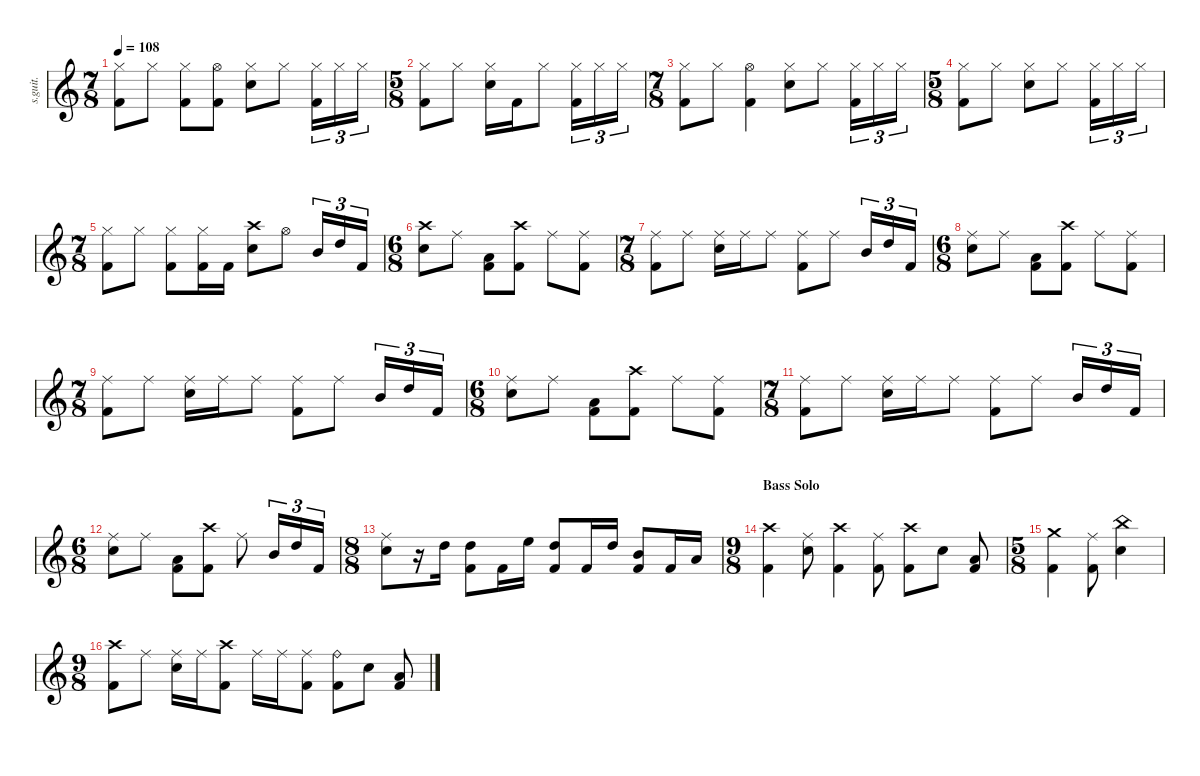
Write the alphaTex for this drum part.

\defaultSystemsLayout 4
\hideDynamics
\bracketExtendMode nobrackets
\track ("Danny Carey" "s.guit.") {instrument percussion}
\staff {score}
\articulation defaults
\ts (7 8)
\beaming (8 2 2 2 2)
\tempo 108
\clef g2
\ks c
("Hi-Hat (closed)" "Kick (hit) 2").8{lyrics (0 "") lyrics (1 "") lyrics (2 "") lyrics (3 "") lyrics (4 "") dy f} "Hi-Hat (closed)".8{lyrics (0 "") lyrics (1 "") lyrics (2 "") lyrics (3 "") lyrics (4 "")} ("Hi-Hat (closed)" "Kick (hit) 2").8{lyrics (0 "") lyrics (1 "") lyrics (2 "") lyrics (3 "") lyrics (4 "")} ("Hi-Hat (open)" "Kick (hit) 2").8{lyrics (0 "") lyrics (1 "") lyrics (2 "") lyrics (3 "") lyrics (4 "")} ("Hi-Hat (closed)" "Snare (hit) 2").8{lyrics (0 "") lyrics (1 "") lyrics (2 "") lyrics (3 "") lyrics (4 "")} "Hi-Hat (closed)".8{lyrics (0 "") lyrics (1 "") lyrics (2 "") lyrics (3 "") lyrics (4 "")} ("Hi-Hat (closed)" "Kick (hit) 2").16{tu (3 2) lyrics (0 "") lyrics (1 "") lyrics (2 "") lyrics (3 "") lyrics (4 "")} "Hi-Hat (closed)".16{tu (3 2) lyrics (0 "") lyrics (1 "") lyrics (2 "") lyrics (3 "") lyrics (4 "")} "Hi-Hat (closed)".16{tu (3 2) lyrics (0 "") lyrics (1 "") lyrics (2 "") lyrics (3 "") lyrics (4 "")} |
\ts (5 8)
\beaming (8 2 2 2 2)
("Hi-Hat (closed)" "Kick (hit) 2").8{lyrics (0 "") lyrics (1 "") lyrics (2 "") lyrics (3 "") lyrics (4 "")} "Hi-Hat (closed)".8{lyrics (0 "") lyrics (1 "") lyrics (2 "") lyrics (3 "") lyrics (4 "")} ("Hi-Hat (closed)" "Snare (hit) 2").16{lyrics (0 "") lyrics (1 "") lyrics (2 "") lyrics (3 "") lyrics (4 "")} "Kick (hit) 2".16{lyrics (0 "") lyrics (1 "") lyrics (2 "") lyrics (3 "") lyrics (4 "")} "Hi-Hat (closed)".8{lyrics (0 "") lyrics (1 "") lyrics (2 "") lyrics (3 "") lyrics (4 "")} ("Hi-Hat (closed)" "Kick (hit) 2").16{tu (3 2) lyrics (0 "") lyrics (1 "") lyrics (2 "") lyrics (3 "") lyrics (4 "")} "Hi-Hat (closed)".16{tu (3 2) lyrics (0 "") lyrics (1 "") lyrics (2 "") lyrics (3 "") lyrics (4 "")} "Hi-Hat (closed)".16{tu (3 2) lyrics (0 "") lyrics (1 "") lyrics (2 "") lyrics (3 "") lyrics (4 "")} |
\ts (7 8)
\beaming (8 2 2 2 2)
("Hi-Hat (closed)" "Kick (hit) 2").8{lyrics (0 "") lyrics (1 "") lyrics (2 "") lyrics (3 "") lyrics (4 "")} "Hi-Hat (closed)".8{lyrics (0 "") lyrics (1 "") lyrics (2 "") lyrics (3 "") lyrics (4 "")} ("Hi-Hat (open)" "Kick (hit) 2").4{lyrics (0 "") lyrics (1 "") lyrics (2 "") lyrics (3 "") lyrics (4 "")} ("Hi-Hat (closed)" "Snare (hit) 2").8{lyrics (0 "") lyrics (1 "") lyrics (2 "") lyrics (3 "") lyrics (4 "")} "Hi-Hat (closed)".8{lyrics (0 "") lyrics (1 "") lyrics (2 "") lyrics (3 "") lyrics (4 "")} ("Hi-Hat (closed)" "Kick (hit) 2").16{tu (3 2) lyrics (0 "") lyrics (1 "") lyrics (2 "") lyrics (3 "") lyrics (4 "")} "Hi-Hat (closed)".16{tu (3 2) lyrics (0 "") lyrics (1 "") lyrics (2 "") lyrics (3 "") lyrics (4 "")} "Hi-Hat (closed)".16{tu (3 2) lyrics (0 "") lyrics (1 "") lyrics (2 "") lyrics (3 "") lyrics (4 "")} |
\ts (5 8)
\beaming (8 2 2 2 2)
("Hi-Hat (closed)" "Kick (hit) 2").8{lyrics (0 "") lyrics (1 "") lyrics (2 "") lyrics (3 "") lyrics (4 "")} "Hi-Hat (closed)".8{lyrics (0 "") lyrics (1 "") lyrics (2 "") lyrics (3 "") lyrics (4 "")} ("Hi-Hat (closed)" "Snare (hit) 2").8{lyrics (0 "") lyrics (1 "") lyrics (2 "") lyrics (3 "") lyrics (4 "")} "Hi-Hat (closed)".8{lyrics (0 "") lyrics (1 "") lyrics (2 "") lyrics (3 "") lyrics (4 "")} ("Hi-Hat (closed)" "Kick (hit) 2").16{tu (3 2) lyrics (0 "") lyrics (1 "") lyrics (2 "") lyrics (3 "") lyrics (4 "")} "Hi-Hat (closed)".16{tu (3 2) lyrics (0 "") lyrics (1 "") lyrics (2 "") lyrics (3 "") lyrics (4 "")} "Hi-Hat (closed)".16{tu (3 2) lyrics (0 "") lyrics (1 "") lyrics (2 "") lyrics (3 "") lyrics (4 "")} |
\ts (7 8)
\beaming (8 2 2 2 2)
("Hi-Hat (closed)" "Kick (hit) 2").8{lyrics (0 "") lyrics (1 "") lyrics (2 "") lyrics (3 "") lyrics (4 "")} "Hi-Hat (closed)".8{lyrics (0 "") lyrics (1 "") lyrics (2 "") lyrics (3 "") lyrics (4 "")} ("Hi-Hat (closed)" "Kick (hit) 2").8{lyrics (0 "") lyrics (1 "") lyrics (2 "") lyrics (3 "") lyrics (4 "")} ("Hi-Hat (closed)" "Kick (hit) 2").16{lyrics (0 "") lyrics (1 "") lyrics (2 "") lyrics (3 "") lyrics (4 "")} "Kick (hit) 2".16{lyrics (0 "") lyrics (1 "") lyrics (2 "") lyrics (3 "") lyrics (4 "")} ("Crash high (hit)" "Snare (hit) 2").8{lyrics (0 "") lyrics (1 "") lyrics (2 "") lyrics (3 "") lyrics (4 "")} "Hi-Hat (open)".8{lyrics (0 "") lyrics (1 "") lyrics (2 "") lyrics (3 "") lyrics (4 "")} "Mid Tom (hit)".16{tu (3 2) lyrics (0 "") lyrics (1 "") lyrics (2 "") lyrics (3 "") lyrics (4 "")} "High Tom (hit)".16{tu (3 2) lyrics (0 "") lyrics (1 "") lyrics (2 "") lyrics (3 "") lyrics (4 "")} "Kick (hit) 2".16{tu (3 2) lyrics (0 "") lyrics (1 "") lyrics (2 "") lyrics (3 "") lyrics (4 "")} |
\ts (6 8)
\beaming (8 2 2 2 2)
("Crash high (hit)" "Snare (hit) 2").8{lyrics (0 "") lyrics (1 "") lyrics (2 "") lyrics (3 "") lyrics (4 "")} "Ride (middle)".8{lyrics (0 "") lyrics (1 "") lyrics (2 "") lyrics (3 "") lyrics (4 "")} ("Kick (hit) 2" "Low Floor Tom (hit)").8{lyrics (0 "") lyrics (1 "") lyrics (2 "") lyrics (3 "") lyrics (4 "")} ("Crash high (hit)" "Kick (hit) 2").8{lyrics (0 "") lyrics (1 "") lyrics (2 "") lyrics (3 "") lyrics (4 "")} "Ride (middle)".8{lyrics (0 "") lyrics (1 "") lyrics (2 "") lyrics (3 "") lyrics (4 "")} ("Ride (middle)" "Kick (hit) 2").8{lyrics (0 "") lyrics (1 "") lyrics (2 "") lyrics (3 "") lyrics (4 "")} |
\ts (7 8)
\beaming (8 2 2 2 2)
("Ride (middle)" "Kick (hit) 2").8{lyrics (0 "") lyrics (1 "") lyrics (2 "") lyrics (3 "") lyrics (4 "")} "Ride (middle)".8{lyrics (0 "") lyrics (1 "") lyrics (2 "") lyrics (3 "") lyrics (4 "")} ("Ride (middle)" "Snare (hit) 2").16{lyrics (0 "") lyrics (1 "") lyrics (2 "") lyrics (3 "") lyrics (4 "")} "Ride (middle)".16{lyrics (0 "") lyrics (1 "") lyrics (2 "") lyrics (3 "") lyrics (4 "")} "Ride (middle)".8{lyrics (0 "") lyrics (1 "") lyrics (2 "") lyrics (3 "") lyrics (4 "")} ("Ride (middle)" "Kick (hit) 2").8{lyrics (0 "") lyrics (1 "") lyrics (2 "") lyrics (3 "") lyrics (4 "")} "Ride (middle)".8{lyrics (0 "") lyrics (1 "") lyrics (2 "") lyrics (3 "") lyrics (4 "")} "Mid Tom (hit)".16{tu (3 2) lyrics (0 "") lyrics (1 "") lyrics (2 "") lyrics (3 "") lyrics (4 "")} "High Tom (hit)".16{tu (3 2) lyrics (0 "") lyrics (1 "") lyrics (2 "") lyrics (3 "") lyrics (4 "")} "Kick (hit) 2".16{tu (3 2) lyrics (0 "") lyrics (1 "") lyrics (2 "") lyrics (3 "") lyrics (4 "")} |
\ts (6 8)
\beaming (8 2 2 2 2)
("Ride (middle)" "Snare (hit) 2").8{lyrics (0 "") lyrics (1 "") lyrics (2 "") lyrics (3 "") lyrics (4 "")} "Ride (middle)".8{lyrics (0 "") lyrics (1 "") lyrics (2 "") lyrics (3 "") lyrics (4 "")} ("Kick (hit) 2" "Low Floor Tom (hit)").8{lyrics (0 "") lyrics (1 "") lyrics (2 "") lyrics (3 "") lyrics (4 "")} ("Crash high (hit)" "Kick (hit) 2").8{lyrics (0 "") lyrics (1 "") lyrics (2 "") lyrics (3 "") lyrics (4 "")} "Ride (middle)".8{lyrics (0 "") lyrics (1 "") lyrics (2 "") lyrics (3 "") lyrics (4 "")} ("Ride (middle)" "Kick (hit) 2").8{lyrics (0 "") lyrics (1 "") lyrics (2 "") lyrics (3 "") lyrics (4 "")} |
\ts (7 8)
\beaming (8 2 2 2 2)
("Ride (middle)" "Kick (hit) 2").8{lyrics (0 "") lyrics (1 "") lyrics (2 "") lyrics (3 "") lyrics (4 "")} "Ride (middle)".8{lyrics (0 "") lyrics (1 "") lyrics (2 "") lyrics (3 "") lyrics (4 "")} ("Ride (middle)" "Snare (hit) 2").16{lyrics (0 "") lyrics (1 "") lyrics (2 "") lyrics (3 "") lyrics (4 "")} "Ride (middle)".16{lyrics (0 "") lyrics (1 "") lyrics (2 "") lyrics (3 "") lyrics (4 "")} "Ride (middle)".8{lyrics (0 "") lyrics (1 "") lyrics (2 "") lyrics (3 "") lyrics (4 "")} ("Ride (middle)" "Kick (hit) 2").8{lyrics (0 "") lyrics (1 "") lyrics (2 "") lyrics (3 "") lyrics (4 "")} "Ride (middle)".8{lyrics (0 "") lyrics (1 "") lyrics (2 "") lyrics (3 "") lyrics (4 "")} "Mid Tom (hit)".16{tu (3 2) lyrics (0 "") lyrics (1 "") lyrics (2 "") lyrics (3 "") lyrics (4 "")} "High Tom (hit)".16{tu (3 2) lyrics (0 "") lyrics (1 "") lyrics (2 "") lyrics (3 "") lyrics (4 "")} "Kick (hit) 2".16{tu (3 2) lyrics (0 "") lyrics (1 "") lyrics (2 "") lyrics (3 "") lyrics (4 "")} |
\ts (6 8)
\beaming (8 2 2 2 2)
("Ride (middle)" "Snare (hit) 2").8{lyrics (0 "") lyrics (1 "") lyrics (2 "") lyrics (3 "") lyrics (4 "")} "Ride (middle)".8{lyrics (0 "") lyrics (1 "") lyrics (2 "") lyrics (3 "") lyrics (4 "")} ("Kick (hit) 2" "Low Floor Tom (hit)").8{lyrics (0 "") lyrics (1 "") lyrics (2 "") lyrics (3 "") lyrics (4 "")} ("Crash high (hit)" "Kick (hit) 2").8{lyrics (0 "") lyrics (1 "") lyrics (2 "") lyrics (3 "") lyrics (4 "")} "Ride (middle)".8{lyrics (0 "") lyrics (1 "") lyrics (2 "") lyrics (3 "") lyrics (4 "")} ("Ride (middle)" "Kick (hit) 2").8{lyrics (0 "") lyrics (1 "") lyrics (2 "") lyrics (3 "") lyrics (4 "")} |
\ts (7 8)
\beaming (8 2 2 2 2)
("Ride (middle)" "Kick (hit) 2").8{lyrics (0 "") lyrics (1 "") lyrics (2 "") lyrics (3 "") lyrics (4 "")} "Ride (middle)".8{lyrics (0 "") lyrics (1 "") lyrics (2 "") lyrics (3 "") lyrics (4 "")} ("Ride (middle)" "Snare (hit) 2").16{lyrics (0 "") lyrics (1 "") lyrics (2 "") lyrics (3 "") lyrics (4 "")} "Ride (middle)".16{lyrics (0 "") lyrics (1 "") lyrics (2 "") lyrics (3 "") lyrics (4 "")} "Ride (middle)".8{lyrics (0 "") lyrics (1 "") lyrics (2 "") lyrics (3 "") lyrics (4 "")} ("Ride (middle)" "Kick (hit) 2").8{lyrics (0 "") lyrics (1 "") lyrics (2 "") lyrics (3 "") lyrics (4 "")} "Ride (middle)".8{lyrics (0 "") lyrics (1 "") lyrics (2 "") lyrics (3 "") lyrics (4 "")} "Mid Tom (hit)".16{tu (3 2) lyrics (0 "") lyrics (1 "") lyrics (2 "") lyrics (3 "") lyrics (4 "")} "High Tom (hit)".16{tu (3 2) lyrics (0 "") lyrics (1 "") lyrics (2 "") lyrics (3 "") lyrics (4 "")} "Kick (hit) 2".16{tu (3 2) lyrics (0 "") lyrics (1 "") lyrics (2 "") lyrics (3 "") lyrics (4 "")} |
\ts (6 8)
\beaming (8 2 2 2 2)
("Ride (middle)" "Snare (hit) 2").8{lyrics (0 "") lyrics (1 "") lyrics (2 "") lyrics (3 "") lyrics (4 "")} "Ride (middle)".8{lyrics (0 "") lyrics (1 "") lyrics (2 "") lyrics (3 "") lyrics (4 "")} ("Kick (hit) 2" "Low Floor Tom (hit)").8{lyrics (0 "") lyrics (1 "") lyrics (2 "") lyrics (3 "") lyrics (4 "")} ("Crash high (hit)" "Kick (hit) 2").8{lyrics (0 "") lyrics (1 "") lyrics (2 "") lyrics (3 "") lyrics (4 "")} "Ride (middle)".8{lyrics (0 "") lyrics (1 "") lyrics (2 "") lyrics (3 "") lyrics (4 "")} "Mid Tom (hit)".16{tu (3 2) lyrics (0 "") lyrics (1 "") lyrics (2 "") lyrics (3 "") lyrics (4 "")} "High Tom (hit)".16{tu (3 2) lyrics (0 "") lyrics (1 "") lyrics (2 "") lyrics (3 "") lyrics (4 "")} "Kick (hit) 2".16{tu (3 2) lyrics (0 "") lyrics (1 "") lyrics (2 "") lyrics (3 "") lyrics (4 "")} |
\ts (8 8)
\beaming (8 2 2 2 2)
("Ride (middle)" "Snare (hit) 2").8{lyrics (0 "") lyrics (1 "") lyrics (2 "") lyrics (3 "") lyrics (4 "")} r.16 "High Tom (hit)".16{lyrics (0 "") lyrics (1 "") lyrics (2 "") lyrics (3 "") lyrics (4 "")} ("Kick (hit) 2" "High Tom (hit)").8{lyrics (0 "") lyrics (1 "") lyrics (2 "") lyrics (3 "") lyrics (4 "")} "Kick (hit) 2".16{lyrics (0 "") lyrics (1 "") lyrics (2 "") lyrics (3 "") lyrics (4 "")} "High Floor Tom (hit)".16{lyrics (0 "") lyrics (1 "") lyrics (2 "") lyrics (3 "") lyrics (4 "")} ("High Tom (hit)" "Kick (hit) 2").8{lyrics (0 "") lyrics (1 "") lyrics (2 "") lyrics (3 "") lyrics (4 "")} "Kick (hit) 2".16{lyrics (0 "") lyrics (1 "") lyrics (2 "") lyrics (3 "") lyrics (4 "")} "High Tom (hit)".16{lyrics (0 "") lyrics (1 "") lyrics (2 "") lyrics (3 "") lyrics (4 "")} ("Mid Tom (hit)" "Kick (hit) 2").8{lyrics (0 "") lyrics (1 "") lyrics (2 "") lyrics (3 "") lyrics (4 "")} "Kick (hit) 2".16{lyrics (0 "") lyrics (1 "") lyrics (2 "") lyrics (3 "") lyrics (4 "")} "Low Floor Tom (hit)".16{lyrics (0 "") lyrics (1 "") lyrics (2 "") lyrics (3 "") lyrics (4 "")} |
\ts (9 8)
\beaming (8 2 2 2 2)
\section ("" "Bass Solo")
("Crash high (hit)" "Kick (hit) 2").4{lyrics (0 "") lyrics (1 "") lyrics (2 "") lyrics (3 "") lyrics (4 "")} ("Ride (middle)" "Snare (hit) 2").8{lyrics (0 "") lyrics (1 "") lyrics (2 "") lyrics (3 "") lyrics (4 "")} ("Crash high (hit)" "Kick (hit) 2").4{lyrics (0 "") lyrics (1 "") lyrics (2 "") lyrics (3 "") lyrics (4 "")} ("Ride (middle)" "Kick (hit) 2").8{lyrics (0 "") lyrics (1 "") lyrics (2 "") lyrics (3 "") lyrics (4 "")} ("Crash high (hit)" "Kick (hit) 2").8{lyrics (0 "") lyrics (1 "") lyrics (2 "") lyrics (3 "") lyrics (4 "")} "Snare (hit) 2".8{lyrics (0 "") lyrics (1 "") lyrics (2 "") lyrics (3 "") lyrics (4 "")} ("Kick (hit) 2" "Low Floor Tom (hit)").8{lyrics (0 "") lyrics (1 "") lyrics (2 "") lyrics (3 "") lyrics (4 "")} |
\ts (5 8)
\beaming (8 2 2 2 2)
("Crash medium (hit)" "Kick (hit) 2").4{lyrics (0 "") lyrics (1 "") lyrics (2 "") lyrics (3 "") lyrics (4 "")} ("Ride (middle)" "Kick (hit) 2").8{lyrics (0 "") lyrics (1 "") lyrics (2 "") lyrics (3 "") lyrics (4 "")} ("Snare (hit) 2" "China (hit)").4{lyrics (0 "") lyrics (1 "") lyrics (2 "") lyrics (3 "") lyrics (4 "")} |
\ts (9 8)
\beaming (8 2 2 2 2)
("Kick (hit) 2" "Crash high (hit)").8{lyrics (0 "") lyrics (1 "") lyrics (2 "") lyrics (3 "") lyrics (4 "")} "Ride (middle)".8{lyrics (0 "") lyrics (1 "") lyrics (2 "") lyrics (3 "") lyrics (4 "")} ("Ride (middle)" "Snare (hit) 2").16{lyrics (0 "") lyrics (1 "") lyrics (2 "") lyrics (3 "") lyrics (4 "")} "Ride (middle)".16{lyrics (0 "") lyrics (1 "") lyrics (2 "") lyrics (3 "") lyrics (4 "")} ("Crash high (hit)" "Kick (hit) 2").8{lyrics (0 "") lyrics (1 "") lyrics (2 "") lyrics (3 "") lyrics (4 "")} "Ride (middle)".16{lyrics (0 "") lyrics (1 "") lyrics (2 "") lyrics (3 "") lyrics (4 "")} "Ride (middle)".16{lyrics (0 "") lyrics (1 "") lyrics (2 "") lyrics (3 "") lyrics (4 "")} ("Ride (middle)" "Kick (hit) 2").8{lyrics (0 "") lyrics (1 "") lyrics (2 "") lyrics (3 "") lyrics (4 "")} ("Ride (bell)" "Kick (hit) 2").8{lyrics (0 "") lyrics (1 "") lyrics (2 "") lyrics (3 "") lyrics (4 "")} "Snare (hit) 2".8{lyrics (0 "") lyrics (1 "") lyrics (2 "") lyrics (3 "") lyrics (4 "")} ("Kick (hit) 2" "Low Floor Tom (hit)").8{lyrics (0 "") lyrics (1 "") lyrics (2 "") lyrics (3 "") lyrics (4 "")}
